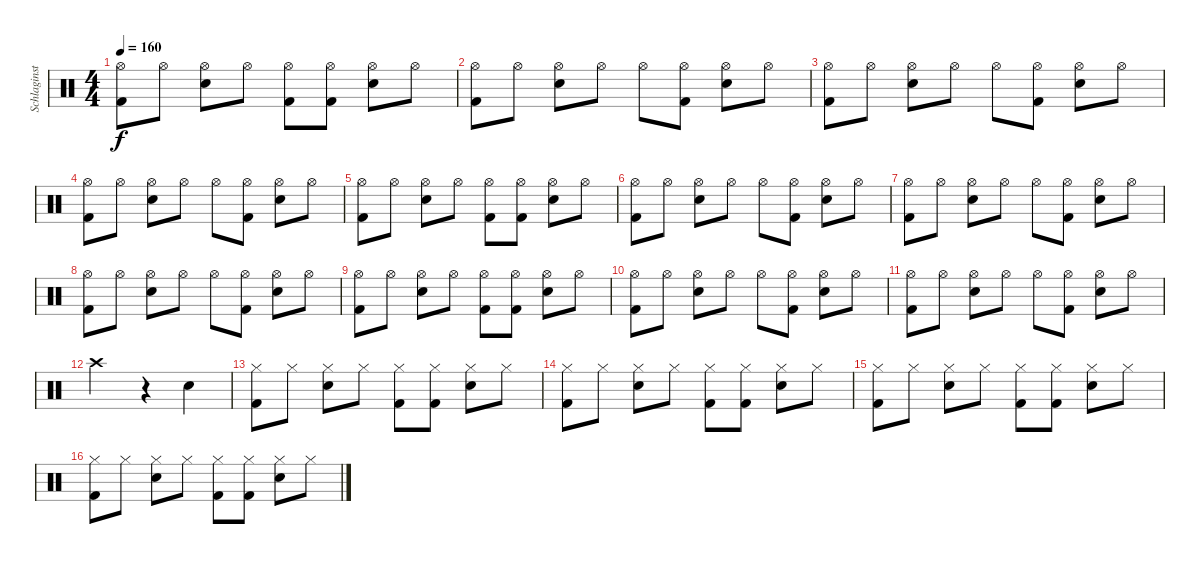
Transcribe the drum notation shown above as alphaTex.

\track ("Schlaginstrumente - Auswahl" "Schlaginst") {instrument percussion}
\staff {score}
\articulation defaults
\ts (4 4)
\tempo 160
\clef neutral
\ks c
("Kick (hit) 2" "Hi-Hat (open)").8{dy f} "Hi-Hat (open)".8 ("Snare (hit) 2" "Hi-Hat (open)").8 "Hi-Hat (open)".8 ("Kick (hit) 2" "Hi-Hat (open)").8 ("Kick (hit) 2" "Hi-Hat (open)").8 ("Snare (hit) 2" "Hi-Hat (open)").8 "Hi-Hat (open)".8 |
("Kick (hit) 2" "Hi-Hat (open)").8 "Hi-Hat (open)".8 ("Snare (hit) 2" "Hi-Hat (open)").8 "Hi-Hat (open)".8 "Hi-Hat (open)".8 ("Kick (hit) 2" "Hi-Hat (open)").8 ("Snare (hit) 2" "Hi-Hat (open)").8 "Hi-Hat (open)".8 |
("Kick (hit) 2" "Hi-Hat (open)").8 "Hi-Hat (open)".8 ("Snare (hit) 2" "Hi-Hat (open)").8 "Hi-Hat (open)".8 "Hi-Hat (open)".8 ("Kick (hit) 2" "Hi-Hat (open)").8 ("Snare (hit) 2" "Hi-Hat (open)").8 "Hi-Hat (open)".8 |
("Kick (hit) 2" "Hi-Hat (open)").8 "Hi-Hat (open)".8 ("Snare (hit) 2" "Hi-Hat (open)").8 "Hi-Hat (open)".8 "Hi-Hat (open)".8 ("Kick (hit) 2" "Hi-Hat (open)").8 ("Snare (hit) 2" "Hi-Hat (open)").8 "Hi-Hat (open)".8 |
("Kick (hit) 2" "Hi-Hat (open)").8 "Hi-Hat (open)".8 ("Snare (hit) 2" "Hi-Hat (open)").8 "Hi-Hat (open)".8 ("Kick (hit) 2" "Hi-Hat (open)").8 ("Kick (hit) 2" "Hi-Hat (open)").8 ("Snare (hit) 2" "Hi-Hat (open)").8 "Hi-Hat (open)".8 |
("Kick (hit) 2" "Hi-Hat (open)").8 "Hi-Hat (open)".8 ("Snare (hit) 2" "Hi-Hat (open)").8 "Hi-Hat (open)".8 "Hi-Hat (open)".8 ("Kick (hit) 2" "Hi-Hat (open)").8 ("Snare (hit) 2" "Hi-Hat (open)").8 "Hi-Hat (open)".8 |
("Kick (hit) 2" "Hi-Hat (open)").8 "Hi-Hat (open)".8 ("Snare (hit) 2" "Hi-Hat (open)").8 "Hi-Hat (open)".8 "Hi-Hat (open)".8 ("Kick (hit) 2" "Hi-Hat (open)").8 ("Snare (hit) 2" "Hi-Hat (open)").8 "Hi-Hat (open)".8 |
("Kick (hit) 2" "Hi-Hat (open)").8 "Hi-Hat (open)".8 ("Snare (hit) 2" "Hi-Hat (open)").8 "Hi-Hat (open)".8 "Hi-Hat (open)".8 ("Kick (hit) 2" "Hi-Hat (open)").8 ("Snare (hit) 2" "Hi-Hat (open)").8 "Hi-Hat (open)".8 |
("Kick (hit) 2" "Hi-Hat (open)").8 "Hi-Hat (open)".8 ("Snare (hit) 2" "Hi-Hat (open)").8 "Hi-Hat (open)".8 ("Kick (hit) 2" "Hi-Hat (open)").8 ("Kick (hit) 2" "Hi-Hat (open)").8 ("Snare (hit) 2" "Hi-Hat (open)").8 "Hi-Hat (open)".8 |
("Kick (hit) 2" "Hi-Hat (open)").8 "Hi-Hat (open)".8 ("Snare (hit) 2" "Hi-Hat (open)").8 "Hi-Hat (open)".8 "Hi-Hat (open)".8 ("Kick (hit) 2" "Hi-Hat (open)").8 ("Snare (hit) 2" "Hi-Hat (open)").8 "Hi-Hat (open)".8 |
("Kick (hit) 2" "Hi-Hat (open)").8 "Hi-Hat (open)".8 ("Snare (hit) 2" "Hi-Hat (open)").8 "Hi-Hat (open)".8 "Hi-Hat (open)".8 ("Kick (hit) 2" "Hi-Hat (open)").8 ("Snare (hit) 2" "Hi-Hat (open)").8 "Hi-Hat (open)".8 |
"Crash high (hit)".2 r.4 "Snare (hit) 2".4 |
("Hi-Hat (closed)" "Kick (hit) 2").8 "Hi-Hat (closed)".8 ("Hi-Hat (closed)" "Snare (hit) 2").8 "Hi-Hat (closed)".8 ("Hi-Hat (closed)" "Kick (hit) 2").8 ("Hi-Hat (closed)" "Kick (hit) 2").8 ("Hi-Hat (closed)" "Snare (hit) 2").8 "Hi-Hat (closed)".8 |
("Hi-Hat (closed)" "Kick (hit) 2").8 "Hi-Hat (closed)".8 ("Hi-Hat (closed)" "Snare (hit) 2").8 "Hi-Hat (closed)".8 ("Hi-Hat (closed)" "Kick (hit) 2").8 ("Hi-Hat (closed)" "Kick (hit) 2").8 ("Hi-Hat (closed)" "Snare (hit) 2").8 "Hi-Hat (closed)".8 |
("Hi-Hat (closed)" "Kick (hit) 2").8 "Hi-Hat (closed)".8 ("Hi-Hat (closed)" "Snare (hit) 2").8 "Hi-Hat (closed)".8 ("Hi-Hat (closed)" "Kick (hit) 2").8 ("Hi-Hat (closed)" "Kick (hit) 2").8 ("Hi-Hat (closed)" "Snare (hit) 2").8 "Hi-Hat (closed)".8 |
("Hi-Hat (closed)" "Kick (hit) 2").8 "Hi-Hat (closed)".8 ("Hi-Hat (closed)" "Snare (hit) 2").8 "Hi-Hat (closed)".8 ("Hi-Hat (closed)" "Kick (hit) 2").8 ("Hi-Hat (closed)" "Kick (hit) 2").8 ("Hi-Hat (closed)" "Snare (hit) 2").8 "Hi-Hat (closed)".8
